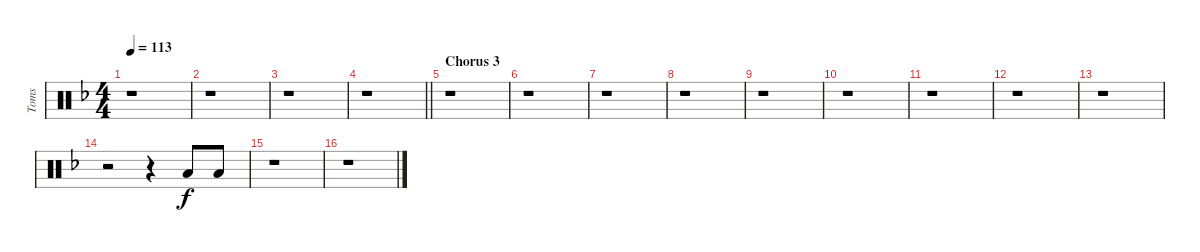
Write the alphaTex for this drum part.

\track ("Toms" "Toms") {instrument percussion}
\staff {score}
\articulation defaults
\ts (4 4)
\tempo 113
\clef neutral
\ks dminor
r.1{dy fff} |
r.1 |
r.1 |
\barLineRight lightlight
r.1 |
\section ("" "Chorus 3")
r.1 |
r.1 |
r.1 |
r.1 |
r.1 |
r.1 |
r.1 |
r.1 |
r.1 |
r.2 r.4 "Low Floor Tom (hit)".8{dy f} "Low Floor Tom (hit)".8 |
r.1 |
r.1
